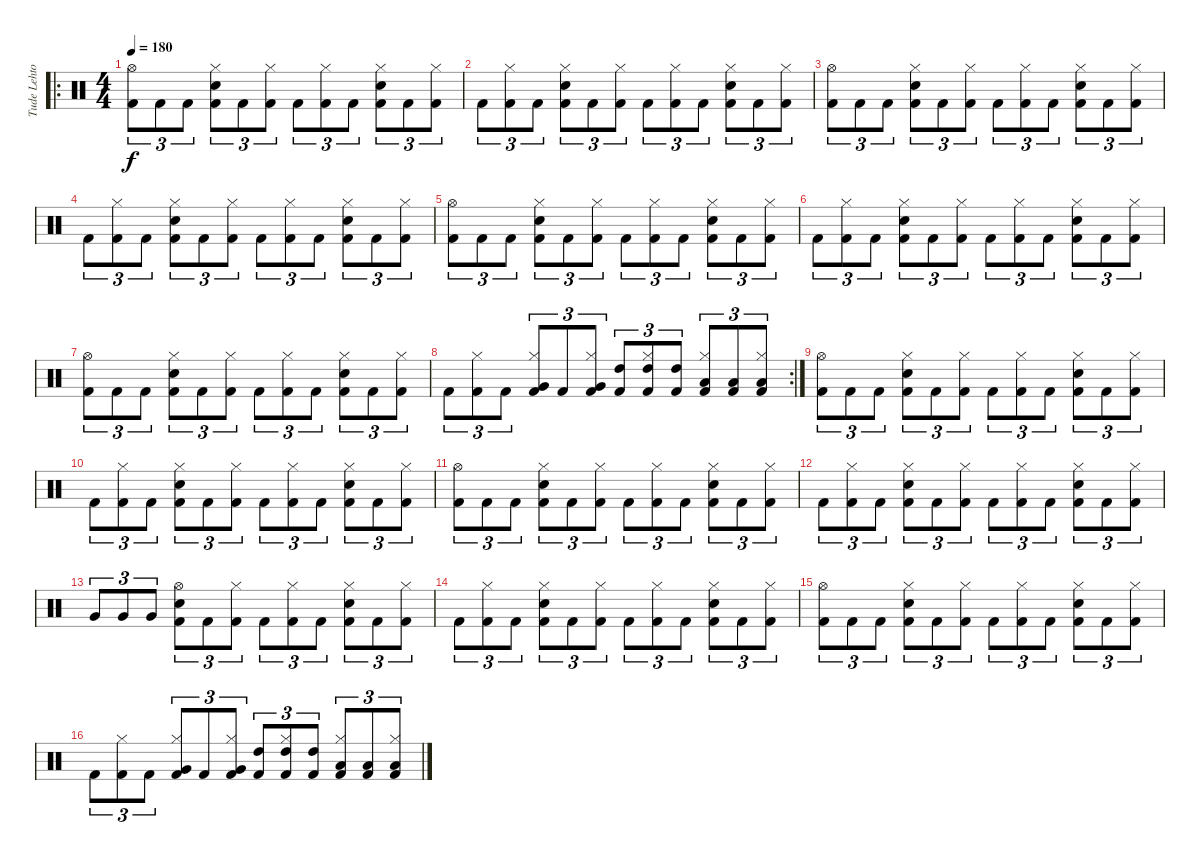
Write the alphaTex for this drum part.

\track ("Tude Lehtonen" "Tude Lehto") {instrument percussion}
\staff {score}
\articulation defaults
\ro
\ts (4 4)
\section ("" "")
\tempo 180
\clef neutral
\ks c
("Hi-Hat (open)" "Kick (hit) 2").8{tu (3 2) dy f} "Kick (hit) 2".8{tu (3 2)} "Kick (hit) 2".8{tu (3 2)} ("Hi-Hat (closed)" "Snare (hit) 2" "Kick (hit) 2").8{tu (3 2)} "Kick (hit) 2".8{tu (3 2)} ("Hi-Hat (closed)" "Kick (hit) 2").8{tu (3 2)} "Kick (hit) 2".8{tu (3 2)} ("Hi-Hat (closed)" "Kick (hit) 2").8{tu (3 2)} "Kick (hit) 2".8{tu (3 2)} ("Hi-Hat (closed)" "Snare (hit) 2" "Kick (hit) 2").8{tu (3 2)} "Kick (hit) 2".8{tu (3 2)} ("Hi-Hat (closed)" "Kick (hit) 2").8{tu (3 2)} |
"Kick (hit) 2".8{tu (3 2)} ("Hi-Hat (closed)" "Kick (hit) 2").8{tu (3 2)} "Kick (hit) 2".8{tu (3 2)} ("Hi-Hat (closed)" "Snare (hit) 2" "Kick (hit) 2").8{tu (3 2)} "Kick (hit) 2".8{tu (3 2)} ("Hi-Hat (closed)" "Kick (hit) 2").8{tu (3 2)} "Kick (hit) 2".8{tu (3 2)} ("Hi-Hat (closed)" "Kick (hit) 2").8{tu (3 2)} "Kick (hit) 2".8{tu (3 2)} ("Hi-Hat (closed)" "Snare (hit) 2" "Kick (hit) 2").8{tu (3 2)} "Kick (hit) 2".8{tu (3 2)} ("Hi-Hat (closed)" "Kick (hit) 2").8{tu (3 2)} |
("Hi-Hat (open)" "Kick (hit) 2").8{tu (3 2)} "Kick (hit) 2".8{tu (3 2)} "Kick (hit) 2".8{tu (3 2)} ("Hi-Hat (closed)" "Snare (hit) 2" "Kick (hit) 2").8{tu (3 2)} "Kick (hit) 2".8{tu (3 2)} ("Hi-Hat (closed)" "Kick (hit) 2").8{tu (3 2)} "Kick (hit) 2".8{tu (3 2)} ("Hi-Hat (closed)" "Kick (hit) 2").8{tu (3 2)} "Kick (hit) 2".8{tu (3 2)} ("Hi-Hat (closed)" "Snare (hit) 2" "Kick (hit) 2").8{tu (3 2)} "Kick (hit) 2".8{tu (3 2)} ("Hi-Hat (closed)" "Kick (hit) 2").8{tu (3 2)} |
"Kick (hit) 2".8{tu (3 2)} ("Hi-Hat (closed)" "Kick (hit) 2").8{tu (3 2)} "Kick (hit) 2".8{tu (3 2)} ("Hi-Hat (closed)" "Snare (hit) 2" "Kick (hit) 2").8{tu (3 2)} "Kick (hit) 2".8{tu (3 2)} ("Hi-Hat (closed)" "Kick (hit) 2").8{tu (3 2)} "Kick (hit) 2".8{tu (3 2)} ("Hi-Hat (closed)" "Kick (hit) 2").8{tu (3 2)} "Kick (hit) 2".8{tu (3 2)} ("Hi-Hat (closed)" "Snare (hit) 2" "Kick (hit) 2").8{tu (3 2)} "Kick (hit) 2".8{tu (3 2)} ("Hi-Hat (closed)" "Kick (hit) 2").8{tu (3 2)} |
("Hi-Hat (open)" "Kick (hit) 2").8{tu (3 2)} "Kick (hit) 2".8{tu (3 2)} "Kick (hit) 2".8{tu (3 2)} ("Hi-Hat (closed)" "Snare (hit) 2" "Kick (hit) 2").8{tu (3 2)} "Kick (hit) 2".8{tu (3 2)} ("Hi-Hat (closed)" "Kick (hit) 2").8{tu (3 2)} "Kick (hit) 2".8{tu (3 2)} ("Hi-Hat (closed)" "Kick (hit) 2").8{tu (3 2)} "Kick (hit) 2".8{tu (3 2)} ("Hi-Hat (closed)" "Snare (hit) 2" "Kick (hit) 2").8{tu (3 2)} "Kick (hit) 2".8{tu (3 2)} ("Hi-Hat (closed)" "Kick (hit) 2").8{tu (3 2)} |
"Kick (hit) 2".8{tu (3 2)} ("Hi-Hat (closed)" "Kick (hit) 2").8{tu (3 2)} "Kick (hit) 2".8{tu (3 2)} ("Hi-Hat (closed)" "Snare (hit) 2" "Kick (hit) 2").8{tu (3 2)} "Kick (hit) 2".8{tu (3 2)} ("Hi-Hat (closed)" "Kick (hit) 2").8{tu (3 2)} "Kick (hit) 2".8{tu (3 2)} ("Hi-Hat (closed)" "Kick (hit) 2").8{tu (3 2)} "Kick (hit) 2".8{tu (3 2)} ("Hi-Hat (closed)" "Snare (hit) 2" "Kick (hit) 2").8{tu (3 2)} "Kick (hit) 2".8{tu (3 2)} ("Hi-Hat (closed)" "Kick (hit) 2").8{tu (3 2)} |
("Hi-Hat (open)" "Kick (hit) 2").8{tu (3 2)} "Kick (hit) 2".8{tu (3 2)} "Kick (hit) 2".8{tu (3 2)} ("Hi-Hat (closed)" "Snare (hit) 2" "Kick (hit) 2").8{tu (3 2)} "Kick (hit) 2".8{tu (3 2)} ("Hi-Hat (closed)" "Kick (hit) 2").8{tu (3 2)} "Kick (hit) 2".8{tu (3 2)} ("Hi-Hat (closed)" "Kick (hit) 2").8{tu (3 2)} "Kick (hit) 2".8{tu (3 2)} ("Hi-Hat (closed)" "Snare (hit) 2" "Kick (hit) 2").8{tu (3 2)} "Kick (hit) 2".8{tu (3 2)} ("Hi-Hat (closed)" "Kick (hit) 2").8{tu (3 2)} |
\rc 2 "Kick (hit) 2".8{tu (3 2)}
("Hi-Hat (closed)" "Kick (hit) 2").8{tu (3 2)} "Kick (hit) 2".8{tu (3 2)} ("Hi-Hat (closed)" "Very Low Tom (hit)" "Kick (hit) 2").8{tu (3 2)} "Kick (hit) 2".8{tu (3 2)} ("Hi-Hat (closed)" "Very Low Tom (hit)" "Kick (hit) 2").8{tu (3 2)} ("High Tom (hit)" "Kick (hit) 2").8{tu (3 2)} ("Hi-Hat (closed)" "High Tom (hit)" "Kick (hit) 2").8{tu (3 2)} ("High Tom (hit)" "Kick (hit) 2").8{tu (3 2)} ("Hi-Hat (closed)" "Low Tom (hit)" "Kick (hit) 2").8{tu (3 2)} ("Low Tom (hit)" "Kick (hit) 2").8{tu (3 2)} ("Hi-Hat (closed)" "Low Tom (hit)" "Kick (hit) 2").8{tu (3 2)} |
("Hi-Hat (open)" "Kick (hit) 2").8{tu (3 2)} "Kick (hit) 2".8{tu (3 2)} "Kick (hit) 2".8{tu (3 2)} ("Hi-Hat (closed)" "Snare (hit) 2" "Kick (hit) 2").8{tu (3 2)} "Kick (hit) 2".8{tu (3 2)} ("Hi-Hat (closed)" "Kick (hit) 2").8{tu (3 2)} "Kick (hit) 2".8{tu (3 2)} ("Hi-Hat (closed)" "Kick (hit) 2").8{tu (3 2)} "Kick (hit) 2".8{tu (3 2)} ("Hi-Hat (closed)" "Snare (hit) 2" "Kick (hit) 2").8{tu (3 2)} "Kick (hit) 2".8{tu (3 2)} ("Hi-Hat (closed)" "Kick (hit) 2").8{tu (3 2)} |
"Kick (hit) 2".8{tu (3 2)} ("Hi-Hat (closed)" "Kick (hit) 2").8{tu (3 2)} "Kick (hit) 2".8{tu (3 2)} ("Hi-Hat (closed)" "Snare (hit) 2" "Kick (hit) 2").8{tu (3 2)} "Kick (hit) 2".8{tu (3 2)} ("Hi-Hat (closed)" "Kick (hit) 2").8{tu (3 2)} "Kick (hit) 2".8{tu (3 2)} ("Hi-Hat (closed)" "Kick (hit) 2").8{tu (3 2)} "Kick (hit) 2".8{tu (3 2)} ("Hi-Hat (closed)" "Snare (hit) 2" "Kick (hit) 2").8{tu (3 2)} "Kick (hit) 2".8{tu (3 2)} ("Hi-Hat (closed)" "Kick (hit) 2").8{tu (3 2)} |
("Hi-Hat (open)" "Kick (hit) 2").8{tu (3 2)} "Kick (hit) 2".8{tu (3 2)} "Kick (hit) 2".8{tu (3 2)} ("Hi-Hat (closed)" "Snare (hit) 2" "Kick (hit) 2").8{tu (3 2)} "Kick (hit) 2".8{tu (3 2)} ("Hi-Hat (closed)" "Kick (hit) 2").8{tu (3 2)} "Kick (hit) 2".8{tu (3 2)} ("Hi-Hat (closed)" "Kick (hit) 2").8{tu (3 2)} "Kick (hit) 2".8{tu (3 2)} ("Hi-Hat (closed)" "Snare (hit) 2" "Kick (hit) 2").8{tu (3 2)} "Kick (hit) 2".8{tu (3 2)} ("Hi-Hat (closed)" "Kick (hit) 2").8{tu (3 2)} |
"Kick (hit) 2".8{tu (3 2)} ("Hi-Hat (closed)" "Kick (hit) 2").8{tu (3 2)} "Kick (hit) 2".8{tu (3 2)} ("Hi-Hat (closed)" "Snare (hit) 2" "Kick (hit) 2").8{tu (3 2)} "Kick (hit) 2".8{tu (3 2)} ("Hi-Hat (closed)" "Kick (hit) 2").8{tu (3 2)} "Kick (hit) 2".8{tu (3 2)} ("Hi-Hat (closed)" "Kick (hit) 2").8{tu (3 2)} "Kick (hit) 2".8{tu (3 2)} ("Hi-Hat (closed)" "Snare (hit) 2" "Kick (hit) 2").8{tu (3 2)} "Kick (hit) 2".8{tu (3 2)} ("Hi-Hat (closed)" "Kick (hit) 2").8{tu (3 2)} |
"Very Low Tom (hit)".8{tu (3 2)} "Very Low Tom (hit)".8{tu (3 2)} "Very Low Tom (hit)".8{tu (3 2)} ("Hi-Hat (open)" "Snare (hit) 2" "Kick (hit) 2").8{tu (3 2)} "Kick (hit) 2".8{tu (3 2)} ("Hi-Hat (closed)" "Kick (hit) 2").8{tu (3 2)} "Kick (hit) 2".8{tu (3 2)} ("Hi-Hat (closed)" "Kick (hit) 2").8{tu (3 2)} "Kick (hit) 2".8{tu (3 2)} ("Hi-Hat (closed)" "Snare (hit) 2" "Kick (hit) 2").8{tu (3 2)} "Kick (hit) 2".8{tu (3 2)} ("Hi-Hat (closed)" "Kick (hit) 2").8{tu (3 2)} |
"Kick (hit) 2".8{tu (3 2)} ("Hi-Hat (closed)" "Kick (hit) 2").8{tu (3 2)} "Kick (hit) 2".8{tu (3 2)} ("Hi-Hat (closed)" "Snare (hit) 2" "Kick (hit) 2").8{tu (3 2)} "Kick (hit) 2".8{tu (3 2)} ("Hi-Hat (closed)" "Kick (hit) 2").8{tu (3 2)} "Kick (hit) 2".8{tu (3 2)} ("Hi-Hat (closed)" "Kick (hit) 2").8{tu (3 2)} "Kick (hit) 2".8{tu (3 2)} ("Hi-Hat (closed)" "Snare (hit) 2" "Kick (hit) 2").8{tu (3 2)} "Kick (hit) 2".8{tu (3 2)} ("Hi-Hat (closed)" "Kick (hit) 2").8{tu (3 2)} |
("Hi-Hat (open)" "Kick (hit) 2").8{tu (3 2)} "Kick (hit) 2".8{tu (3 2)} "Kick (hit) 2".8{tu (3 2)} ("Hi-Hat (closed)" "Snare (hit) 2" "Kick (hit) 2").8{tu (3 2)} "Kick (hit) 2".8{tu (3 2)} ("Hi-Hat (closed)" "Kick (hit) 2").8{tu (3 2)} "Kick (hit) 2".8{tu (3 2)} ("Hi-Hat (closed)" "Kick (hit) 2").8{tu (3 2)} "Kick (hit) 2".8{tu (3 2)} ("Hi-Hat (closed)" "Snare (hit) 2" "Kick (hit) 2").8{tu (3 2)} "Kick (hit) 2".8{tu (3 2)} ("Hi-Hat (closed)" "Kick (hit) 2").8{tu (3 2)} |
"Kick (hit) 2".8{tu (3 2)} ("Hi-Hat (closed)" "Kick (hit) 2").8{tu (3 2)} "Kick (hit) 2".8{tu (3 2)} ("Hi-Hat (closed)" "Very Low Tom (hit)" "Kick (hit) 2").8{tu (3 2)} "Kick (hit) 2".8{tu (3 2)} ("Hi-Hat (closed)" "Very Low Tom (hit)" "Kick (hit) 2").8{tu (3 2)} ("High Tom (hit)" "Kick (hit) 2").8{tu (3 2)} ("Hi-Hat (closed)" "High Tom (hit)" "Kick (hit) 2").8{tu (3 2)} ("High Tom (hit)" "Kick (hit) 2").8{tu (3 2)} ("Hi-Hat (closed)" "Low Tom (hit)" "Kick (hit) 2").8{tu (3 2)} ("Low Tom (hit)" "Kick (hit) 2").8{tu (3 2)} ("Hi-Hat (closed)" "Low Tom (hit)" "Kick (hit) 2").8{tu (3 2)}
